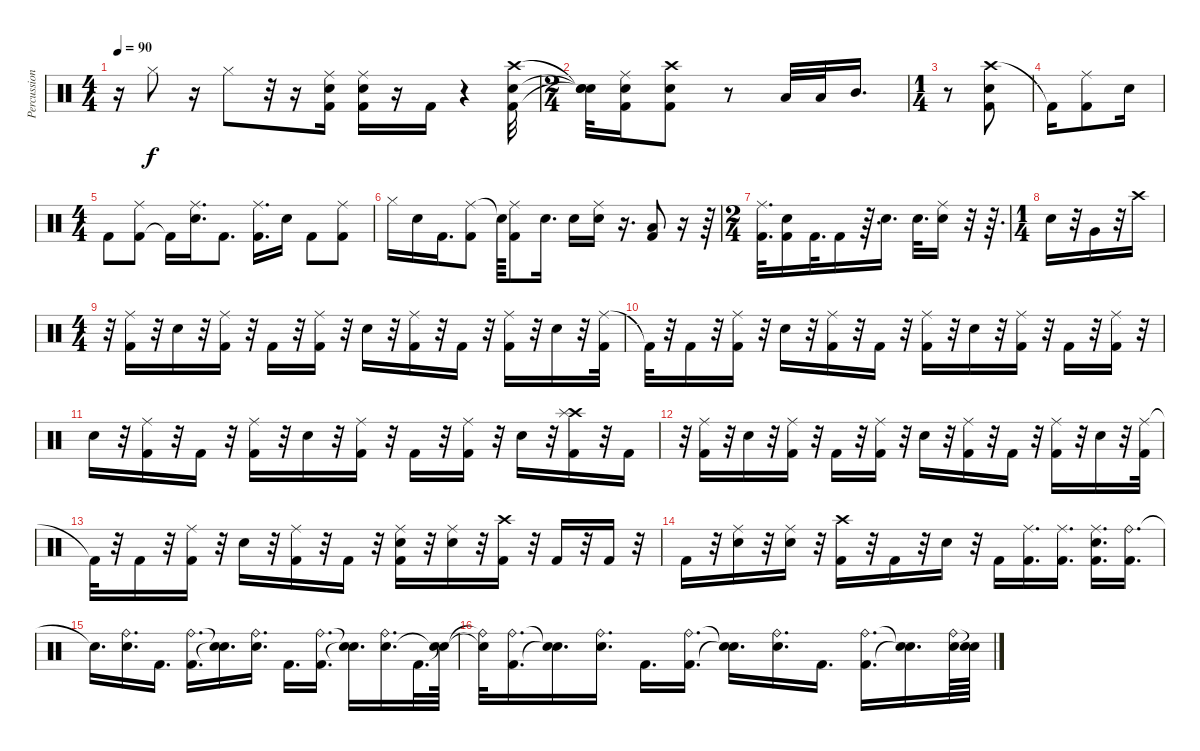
\track ("Percussion" "Percussion") {instrument percussion}
\staff {score}
\articulation defaults
\ts (4 4)
\tempo 90
\clef neutral
\ks c
r.16{dy f} "Hi-Hat (closed)".8 r.16 "Hi-Hat (closed)".8 r.32 r.16 ("Ride (middle)" "Kick (hit) 2" "Electric Snare (hit)").16 ("Ride (middle)" "Kick (hit) 2" "Electric Snare (hit)").16 r.16 "Kick (hit) 2".16 r.4 ("Crash high (hit)" "Electric Snare (hit)" "Kick (hit) 2").32 |
\ts (2 4)
("Snare (hit)"{t} "Snare (hit)"{t} "Snare (hit)"{t}).32 ("Ride (middle)" "Electric Snare (hit)" "Kick (hit) 2").16 ("Crash high (hit)" "Electric Snare (hit)" "Kick (hit) 2").8 r.8 "Low Tom (hit)".32 "Low Tom (hit)".32 "Mid Tom (hit)".16{d} |
\ts (1 4)
r.8 ("Crash high (hit)" "Electric Snare (hit)" "Kick (hit) 2").8 |
"Kick (hit) 2"{t}.16 ("Ride (middle)" "Kick (hit) 2").8 "Electric Snare (hit)".16 |
\ts (4 4)
"Kick (hit) 2".8 ("Kick (hit) 2" "Ride (middle)").8 "Kick (hit) 2"{t}.16 ("Electric Snare (hit)" "Ride (middle)").16{d} "Kick (hit) 2".8{d} ("Ride (middle)" "Kick (hit) 2").16{d} "Electric Snare (hit)".16 "Kick (hit) 2".8 ("Ride (middle)" "Kick (hit) 2").8 |
"Hi-Hat (closed)".16 "Electric Snare (hit)".16 "Kick (hit) 2".16{d} ("Ride (middle)" "Kick (hit) 2").8 "Snare (hit)"{t}.64 ("Ride (middle)" "Kick (hit) 2").8 "Electric Snare (hit)".16{d} "Electric Snare (hit)".16 ("Ride (middle)" "Electric Snare (hit)").16 r.16{d} ("Low Tom (hit)" "Kick (hit) 2").8 r.16 r.64 |
\ts (2 4)
("Ride (middle)" "Kick (hit) 2").32{d} ("Snare (hit) 2" "Kick (hit) 2").16 "Kick (hit) 2".32{d} "Kick (hit) 2".16 r.64{d} "Electric Snare (hit)".16{d} "Electric Snare (hit)".32{d} ("Ride (middle)" "Electric Snare (hit)").16 r.32 r.64{d} |
\ts (1 4)
"Electric Snare (hit)".16 r.32 "Very Low Tom (hit)".16 r.32 "Crash high (hit)".16 |
\ts (4 4)
r.32 ("Ride (middle)" "Kick (hit) 2").16 r.32 "Electric Snare (hit)".16 r.32 ("Ride (middle)" "Kick (hit) 2").16 r.32 "Kick (hit) 2".16 r.32 ("Ride (middle)" "Kick (hit) 2").16 r.32 "Electric Snare (hit)".16 r.32 ("Ride (middle)" "Kick (hit) 2").16 r.32 "Kick (hit) 2".16 r.32 ("Ride (middle)" "Kick (hit) 2").16 r.32 "Electric Snare (hit)".16 r.32 ("Ride (middle)" "Kick (hit) 2").32 |
"Kick (hit) 2"{t}.32 r.32 "Kick (hit) 2".16 r.32 ("Ride (middle)" "Kick (hit) 2").16 r.32 "Electric Snare (hit)".16 r.32 ("Ride (middle)" "Kick (hit) 2").16 r.32 "Kick (hit) 2".16 r.32 ("Ride (middle)" "Kick (hit) 2").16 r.32 "Electric Snare (hit)".16 r.32 ("Ride (middle)" "Kick (hit) 2").16 r.32 "Kick (hit) 2".16 r.32 ("Ride (middle)" "Kick (hit) 2").16 r.32 |
"Electric Snare (hit)".16 r.32 ("Ride (middle)" "Kick (hit) 2").16 r.32 "Kick (hit) 2".16 r.32 ("Ride (middle)" "Kick (hit) 2").16 r.32 "Electric Snare (hit)".16 r.32 ("Ride (middle)" "Kick (hit) 2").16 r.32 "Kick (hit) 2".16 r.32 ("Ride (middle)" "Kick (hit) 2").16 r.32 "Electric Snare (hit)".16 r.32 ("Crash high (hit)" "Splash (hit)" "Kick (hit) 2").16 r.32 "Kick (hit) 2".16 |
r.32 ("Ride (middle)" "Kick (hit) 2").16 r.32 "Electric Snare (hit)".16 r.32 ("Ride (middle)" "Kick (hit) 2").16 r.32 "Kick (hit) 2".16 r.32 ("Ride (middle)" "Kick (hit) 2").16 r.32 "Electric Snare (hit)".16 r.32 ("Ride (middle)" "Kick (hit) 2").16 r.32 "Kick (hit) 2".16 r.32 ("Ride (middle)" "Kick (hit) 2").16 r.32 "Electric Snare (hit)".16 r.32 ("Ride (middle)" "Kick (hit) 2").32 |
"Kick (hit) 2"{t}.32 r.32 "Kick (hit) 2".16 r.32 ("Ride (middle)" "Kick (hit) 2").16 r.32 "Electric Snare (hit)".16 r.32 ("Ride (middle)" "Kick (hit) 2").16 r.32 "Kick (hit) 2".16 r.32 ("Ride (middle)" "Kick (hit) 2" "Electric Snare (hit)").16 r.32 ("Ride (middle)" "Electric Snare (hit)").16 r.32 ("Crash high (hit)" "Kick (hit) 2").16 r.32 "Kick (hit) 2".16 r.32 "Kick (hit) 2".16 r.32 |
"Kick (hit) 2".16 r.32 ("Ride (middle)" "Electric Snare (hit)").16 r.32 ("Ride (middle)" "Electric Snare (hit)").16 r.32 ("Crash high (hit)" "Kick (hit) 2").16 r.32 "Kick (hit) 2".16 r.32 "Electric Snare (hit)".16 r.32 "Kick (hit) 2".16 ("Ride (middle)" "Kick (hit) 2").16{d} ("Ride (middle)" "Kick (hit) 2").16{d} ("Ride (middle)" "Kick (hit) 2" "Electric Snare (hit)").16{d} ("Ride (bell)" "Kick (hit) 2").16{d} |
"Electric Snare (hit)"{t}.16{d} ("Ride (bell)" "Electric Snare (hit)").16{d} "Kick (hit) 2".16{d} ("Ride (bell)" "Kick (hit) 2").16{d} ("Snare (hit)"{t} "Electric Snare (hit)"{t}).16{d} ("Ride (bell)" "Electric Snare (hit)").16{d} "Kick (hit) 2".16{d} ("Ride (bell)" "Kick (hit) 2").16{d} ("Snare (hit)"{t} "Snare (hit)"{t}).16{d} ("Ride (bell)" "Electric Snare (hit)").16{d} "Kick (hit) 2".32{d} ("Snare (hit)"{t} "Snare (hit)"{t}).64 |
("Ride (bell)"{t} "Snare (hit)"{t}).32 ("Ride (bell)" "Kick (hit) 2").16{d} ("Snare (hit)"{t} "Snare (hit)"{t}).16{d} ("Ride (bell)" "Electric Snare (hit)").16{d} "Kick (hit) 2".16{d} ("Ride (bell)" "Kick (hit) 2").16{d} ("Snare (hit)"{t} "Snare (hit)"{t}).16{d} ("Ride (bell)" "Electric Snare (hit)").16{d} "Kick (hit) 2".16{d} ("Ride (bell)" "Kick (hit) 2").16{d} ("Snare (hit)"{t} "Snare (hit)"{t}).16{d} ("Ride (bell)" "Electric Snare (hit)").64 ("Snare (hit)"{t} "Snare (hit)"{t}).64
